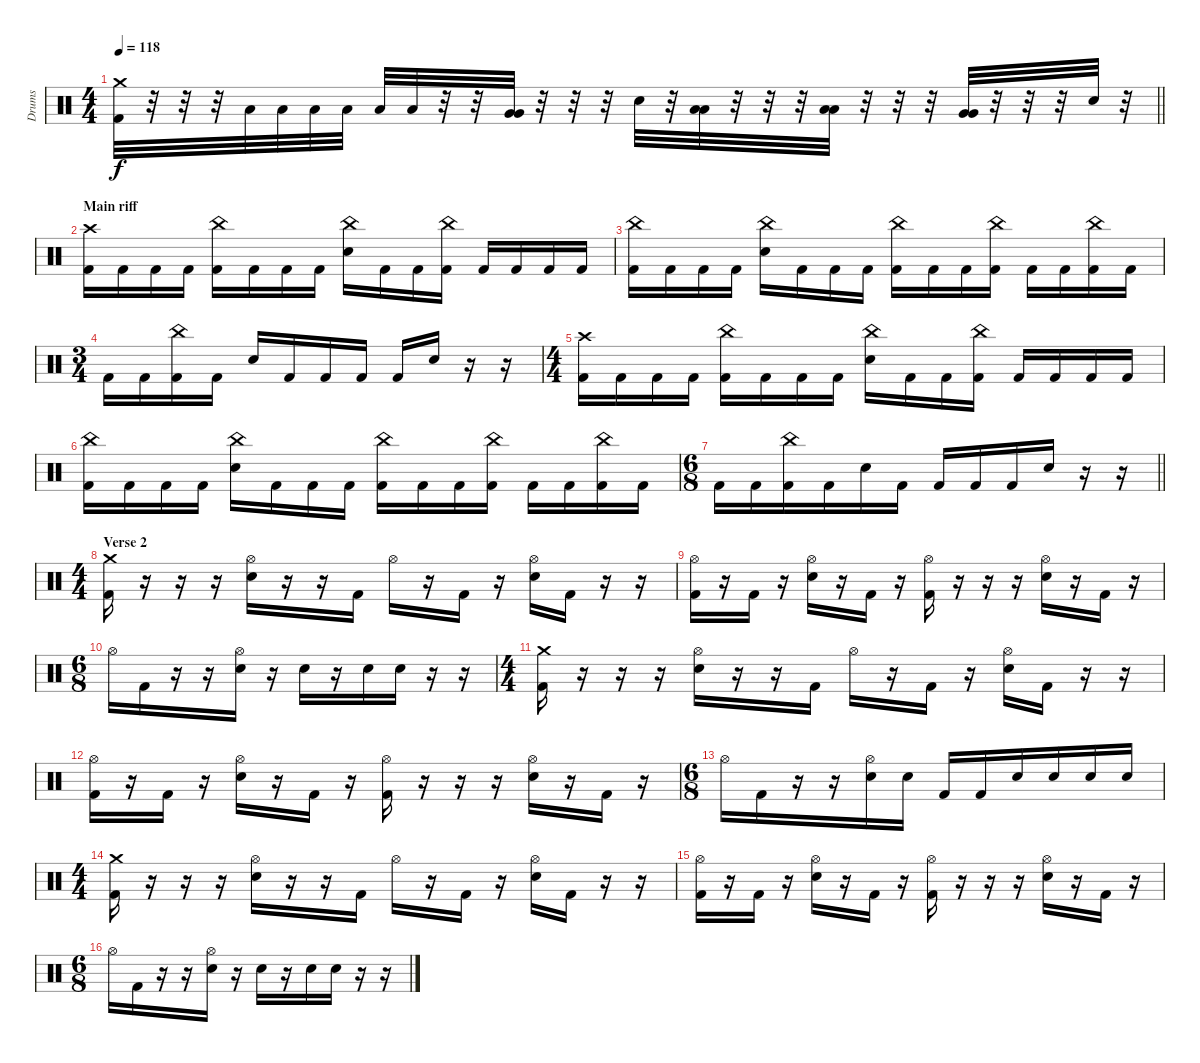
\track ("Drums" "Drums") {instrument percussion}
\staff {score}
\articulation defaults
\ts (4 4)
\tempo 118
\clef neutral
\barLineRight lightlight
\ks c
("Crash medium (hit)" "Kick (hit) 2").32{dy f} r.32 r.32 r.32 "Low Tom (hit)".32 "Low Tom (hit)".32 "Low Tom (hit)".32 "Low Tom (hit)".32 "Low Tom (hit)".32 "Low Tom (hit)".32 r.32 r.32 ("Very Low Tom (hit)" "Very Low Tom (hit)").32 r.32 r.32 r.32 "Electric Snare (hit)".32 r.32 ("Low Tom (hit)" "Low Tom (hit)").32 r.32 r.32 r.32 ("Low Tom (hit)" "Low Tom (hit)").32 r.32 r.32 r.32 ("Very Low Tom (hit)" "Very Low Tom (hit)").32 r.32 r.32 r.32 "Electric Snare (hit)".32 r.32 |
\section ("" "Main riff")
("Crash high (hit)" "Kick (hit) 2").16 "Kick (hit) 2".16 "Kick (hit) 2".16 "Kick (hit) 2".16 ("China (hit)" "Kick (hit) 2").16 "Kick (hit) 2".16 "Kick (hit) 2".16 "Kick (hit) 2".16 ("China (hit)" "Electric Snare (hit)").16 "Kick (hit) 2".16 "Kick (hit) 2".16 ("China (hit)" "Kick (hit) 2").16 "Kick (hit) 2".16 "Kick (hit) 2".16 "Kick (hit) 2".16 "Kick (hit) 2".16 |
("China (hit)" "Kick (hit) 2").16 "Kick (hit) 2".16 "Kick (hit) 2".16 "Kick (hit) 2".16 ("China (hit)" "Electric Snare (hit)").16 "Kick (hit) 2".16 "Kick (hit) 2".16 "Kick (hit) 2".16 ("China (hit)" "Kick (hit) 2").16 "Kick (hit) 2".16 "Kick (hit) 2".16 ("China (hit)" "Kick (hit) 2").16 "Kick (hit) 2".16 "Kick (hit) 2".16 ("China (hit)" "Kick (hit) 2").16 "Kick (hit) 2".16 |
\ts (3 4)
"Kick (hit) 2".16 "Kick (hit) 2".16 ("China (hit)" "Kick (hit) 2").16 "Kick (hit) 2".16 "Electric Snare (hit)".16 "Kick (hit) 2".16 "Kick (hit) 2".16 "Kick (hit) 2".16 "Kick (hit) 2".16 "Electric Snare (hit)".16 r.16 r.16 |
\ts (4 4)
("Crash high (hit)" "Kick (hit) 2").16 "Kick (hit) 2".16 "Kick (hit) 2".16 "Kick (hit) 2".16 ("China (hit)" "Kick (hit) 2").16 "Kick (hit) 2".16 "Kick (hit) 2".16 "Kick (hit) 2".16 ("China (hit)" "Electric Snare (hit)").16 "Kick (hit) 2".16 "Kick (hit) 2".16 ("China (hit)" "Kick (hit) 2").16 "Kick (hit) 2".16 "Kick (hit) 2".16 "Kick (hit) 2".16 "Kick (hit) 2".16 |
("China (hit)" "Kick (hit) 2").16 "Kick (hit) 2".16 "Kick (hit) 2".16 "Kick (hit) 2".16 ("China (hit)" "Electric Snare (hit)").16 "Kick (hit) 2".16 "Kick (hit) 2".16 "Kick (hit) 2".16 ("China (hit)" "Kick (hit) 2").16 "Kick (hit) 2".16 "Kick (hit) 2".16 ("China (hit)" "Kick (hit) 2").16 "Kick (hit) 2".16 "Kick (hit) 2".16 ("China (hit)" "Kick (hit) 2").16 "Kick (hit) 2".16 |
\ts (6 8)
\barLineRight lightlight "Kick (hit) 2".16 "Kick (hit) 2".16
("China (hit)" "Kick (hit) 2").16 "Kick (hit) 2".16 "Electric Snare (hit)".16 "Kick (hit) 2".16 "Kick (hit) 2".16 "Kick (hit) 2".16 "Kick (hit) 2".16 "Electric Snare (hit)".16 r.16 r.16 |
\ts (4 4)
\section ("" "Verse 2")
("Crash medium (hit)" "Kick (hit) 2").16 r.16 r.16 r.16 ("Hi-Hat (open)" "Electric Snare (hit)").16 r.16 r.16 "Kick (hit) 2".16 "Hi-Hat (open)".16 r.16 "Kick (hit) 2".16 r.16 ("Hi-Hat (open)" "Electric Snare (hit)").16 "Kick (hit) 2".16 r.16 r.16 |
("Hi-Hat (open)" "Kick (hit) 2").16 r.16 "Kick (hit) 2".16 r.16 ("Hi-Hat (open)" "Electric Snare (hit)").16 r.16 "Kick (hit) 2".16 r.16 ("Hi-Hat (open)" "Kick (hit) 2").16 r.16 r.16 r.16 ("Hi-Hat (open)" "Electric Snare (hit)").16 r.16 "Kick (hit) 2".16 r.16 |
\ts (6 8)
"Hi-Hat (open)".16 "Kick (hit) 2".16 r.16 r.16 ("Hi-Hat (open)" "Electric Snare (hit)").16 r.16 "Electric Snare (hit)".16 r.16 "Electric Snare (hit)".16 "Electric Snare (hit)".16 r.16 r.16 |
\ts (4 4)
("Crash medium (hit)" "Kick (hit) 2").16 r.16 r.16 r.16 ("Hi-Hat (open)" "Electric Snare (hit)").16 r.16 r.16 "Kick (hit) 2".16 "Hi-Hat (open)".16 r.16 "Kick (hit) 2".16 r.16 ("Hi-Hat (open)" "Electric Snare (hit)").16 "Kick (hit) 2".16 r.16 r.16 |
("Hi-Hat (open)" "Kick (hit) 2").16 r.16 "Kick (hit) 2".16 r.16 ("Hi-Hat (open)" "Electric Snare (hit)").16 r.16 "Kick (hit) 2".16 r.16 ("Hi-Hat (open)" "Kick (hit) 2").16 r.16 r.16 r.16 ("Hi-Hat (open)" "Electric Snare (hit)").16 r.16 "Kick (hit) 2".16 r.16 |
\ts (6 8)
"Hi-Hat (open)".16 "Kick (hit) 2".16 r.16 r.16 ("Hi-Hat (open)" "Electric Snare (hit)").16 "Electric Snare (hit)".16 "Kick (hit) 2".16 "Kick (hit) 2".16 "Electric Snare (hit)".16 "Electric Snare (hit)".16 "Electric Snare (hit)".16 "Electric Snare (hit)".16 |
\ts (4 4)
("Crash medium (hit)" "Kick (hit) 2").16 r.16 r.16 r.16 ("Hi-Hat (open)" "Electric Snare (hit)").16 r.16 r.16 "Kick (hit) 2".16 "Hi-Hat (open)".16 r.16 "Kick (hit) 2".16 r.16 ("Hi-Hat (open)" "Electric Snare (hit)").16 "Kick (hit) 2".16 r.16 r.16 |
("Hi-Hat (open)" "Kick (hit) 2").16 r.16 "Kick (hit) 2".16 r.16 ("Hi-Hat (open)" "Electric Snare (hit)").16 r.16 "Kick (hit) 2".16 r.16 ("Hi-Hat (open)" "Kick (hit) 2").16 r.16 r.16 r.16 ("Hi-Hat (open)" "Electric Snare (hit)").16 r.16 "Kick (hit) 2".16 r.16 |
\ts (6 8)
"Hi-Hat (open)".16 "Kick (hit) 2".16 r.16 r.16 ("Hi-Hat (open)" "Electric Snare (hit)").16 r.16 "Electric Snare (hit)".16 r.16 "Electric Snare (hit)".16 "Electric Snare (hit)".16 r.16 r.16
